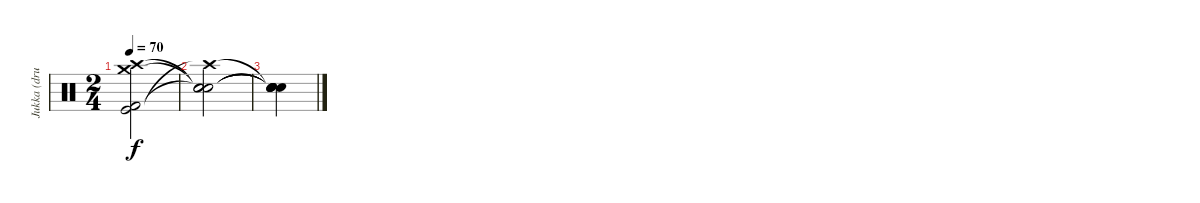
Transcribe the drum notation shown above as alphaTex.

\track ("Jukka (drums)" "Jukka (dru") {instrument percussion}
\staff {score}
\articulation defaults
\ts (2 4)
\tempo 70
\clef neutral
\ks c
("Kick (hit)" "Kick (hit) 2" "Crash high (hit)" "Crash medium (hit)").2{dy f} |
("Crash high (hit)"{t} "Snare (hit)"{t} "Snare (hit)"{t} "Snare (hit)"{t}).2 |
("Snare (hit)"{t} "Snare (hit)"{t} "Snare (hit)"{t} "Snare (hit)"{t} "Snare (hit)").4
